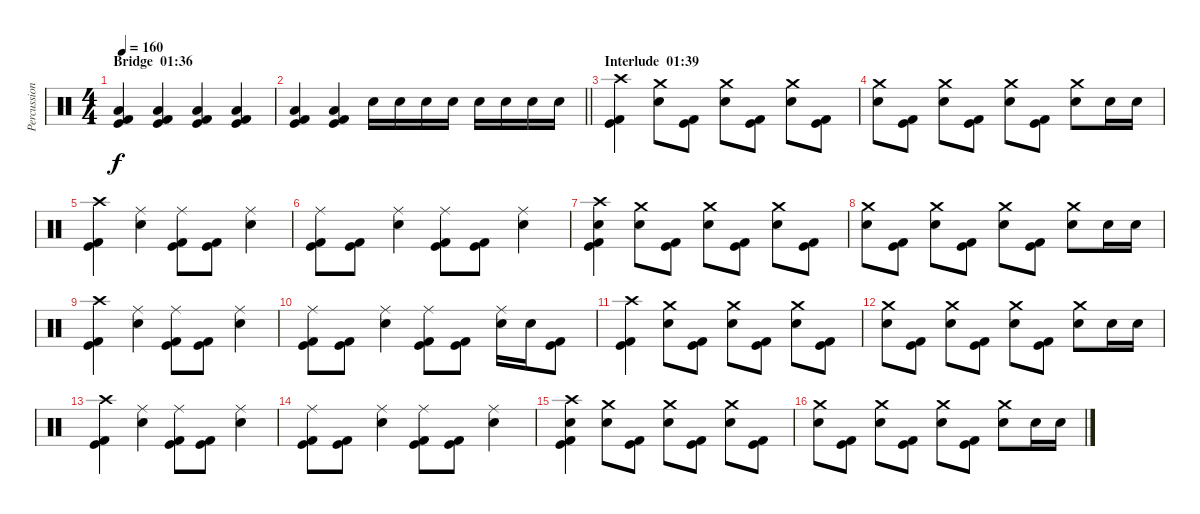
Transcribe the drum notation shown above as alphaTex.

\track ("Percussion" "Percussion") {instrument percussion}
\staff {score}
\articulation defaults
\ts (4 4)
\section ("" "Bridge  01:36")
\tempo 160
\clef neutral
\ks c
("Low Tom (hit)" "Kick (hit)" "Kick (hit) 2").4{dy f} ("Low Tom (hit)" "Kick (hit)" "Kick (hit) 2").4 ("Low Tom (hit)" "Kick (hit)" "Kick (hit) 2").4 ("Low Tom (hit)" "Kick (hit)" "Kick (hit) 2").4 |
\barLineRight lightlight
("Low Tom (hit)" "Kick (hit)" "Kick (hit) 2").4 ("Low Tom (hit)" "Kick (hit)" "Kick (hit) 2").4 "Electric Snare (hit)".16 "Electric Snare (hit)".16 "Electric Snare (hit)".16 "Electric Snare (hit)".16 "Electric Snare (hit)".16 "Electric Snare (hit)".16 "Electric Snare (hit)".16 "Electric Snare (hit)".16 |
\section ("" "Interlude  01:39")
("Crash high (hit)" "Kick (hit)" "Kick (hit) 2").4 ("Crash medium (hit)" "Electric Snare (hit)").8 ("Kick (hit)" "Kick (hit) 2").8 ("Crash medium (hit)" "Electric Snare (hit)").8 ("Kick (hit)" "Kick (hit) 2").8 ("Crash medium (hit)" "Electric Snare (hit)").8 ("Kick (hit)" "Kick (hit) 2").8 |
("Crash medium (hit)" "Electric Snare (hit)").8 ("Kick (hit)" "Kick (hit) 2").8 ("Crash medium (hit)" "Electric Snare (hit)").8 ("Kick (hit)" "Kick (hit) 2").8 ("Crash medium (hit)" "Electric Snare (hit)").8 ("Kick (hit)" "Kick (hit) 2").8 ("Crash medium (hit)" "Electric Snare (hit)").8 "Electric Snare (hit)".16 "Electric Snare (hit)".16 |
("Crash high (hit)" "Kick (hit)" "Kick (hit) 2").4 ("Ride (middle)" "Electric Snare (hit)").4 ("Ride (middle)" "Kick (hit)" "Kick (hit) 2").8 ("Kick (hit)" "Kick (hit) 2").8 ("Ride (middle)" "Electric Snare (hit)").4 |
("Ride (middle)" "Kick (hit)" "Kick (hit) 2").8 ("Kick (hit)" "Kick (hit) 2").8 ("Ride (middle)" "Electric Snare (hit)").4 ("Ride (middle)" "Kick (hit)" "Kick (hit) 2").8 ("Kick (hit)" "Kick (hit) 2").8 ("Ride (middle)" "Electric Snare (hit)").4 |
("Crash high (hit)" "Electric Snare (hit)" "Kick (hit)" "Kick (hit) 2").4 ("Crash medium (hit)" "Electric Snare (hit)").8 ("Kick (hit)" "Kick (hit) 2").8 ("Crash medium (hit)" "Electric Snare (hit)").8 ("Kick (hit)" "Kick (hit) 2").8 ("Crash medium (hit)" "Electric Snare (hit)").8 ("Kick (hit)" "Kick (hit) 2").8 |
("Crash medium (hit)" "Electric Snare (hit)").8 ("Kick (hit)" "Kick (hit) 2").8 ("Crash medium (hit)" "Electric Snare (hit)").8 ("Kick (hit)" "Kick (hit) 2").8 ("Crash medium (hit)" "Electric Snare (hit)").8 ("Kick (hit)" "Kick (hit) 2").8 ("Crash medium (hit)" "Electric Snare (hit)").8 "Electric Snare (hit)".16 "Electric Snare (hit)".16 |
("Crash high (hit)" "Kick (hit)" "Kick (hit) 2").4 ("Ride (middle)" "Electric Snare (hit)").4 ("Ride (middle)" "Kick (hit)" "Kick (hit) 2").8 ("Kick (hit)" "Kick (hit) 2").8 ("Ride (middle)" "Electric Snare (hit)").4 |
("Ride (middle)" "Kick (hit)" "Kick (hit) 2").8 ("Kick (hit)" "Kick (hit) 2").8 ("Ride (middle)" "Electric Snare (hit)").4 ("Ride (middle)" "Kick (hit)" "Kick (hit) 2").8 ("Kick (hit)" "Kick (hit) 2").8 ("Ride (middle)" "Electric Snare (hit)").16 "Electric Snare (hit)".16 ("Kick (hit)" "Kick (hit) 2").8 |
("Crash high (hit)" "Kick (hit)" "Kick (hit) 2").4 ("Crash medium (hit)" "Electric Snare (hit)").8 ("Kick (hit)" "Kick (hit) 2").8 ("Crash medium (hit)" "Electric Snare (hit)").8 ("Kick (hit)" "Kick (hit) 2").8 ("Crash medium (hit)" "Electric Snare (hit)").8 ("Kick (hit)" "Kick (hit) 2").8 |
("Crash medium (hit)" "Electric Snare (hit)").8 ("Kick (hit)" "Kick (hit) 2").8 ("Crash medium (hit)" "Electric Snare (hit)").8 ("Kick (hit)" "Kick (hit) 2").8 ("Crash medium (hit)" "Electric Snare (hit)").8 ("Kick (hit)" "Kick (hit) 2").8 ("Crash medium (hit)" "Electric Snare (hit)").8 "Electric Snare (hit)".16 "Electric Snare (hit)".16 |
("Crash high (hit)" "Kick (hit)" "Kick (hit) 2").4 ("Ride (middle)" "Electric Snare (hit)").4 ("Ride (middle)" "Kick (hit)" "Kick (hit) 2").8 ("Kick (hit)" "Kick (hit) 2").8 ("Ride (middle)" "Electric Snare (hit)").4 |
("Ride (middle)" "Kick (hit)" "Kick (hit) 2").8 ("Kick (hit)" "Kick (hit) 2").8 ("Ride (middle)" "Electric Snare (hit)").4 ("Ride (middle)" "Kick (hit)" "Kick (hit) 2").8 ("Kick (hit)" "Kick (hit) 2").8 ("Ride (middle)" "Electric Snare (hit)").4 |
("Crash high (hit)" "Electric Snare (hit)" "Kick (hit)" "Kick (hit) 2").4 ("Crash medium (hit)" "Electric Snare (hit)").8 ("Kick (hit)" "Kick (hit) 2").8 ("Crash medium (hit)" "Electric Snare (hit)").8 ("Kick (hit)" "Kick (hit) 2").8 ("Crash medium (hit)" "Electric Snare (hit)").8 ("Kick (hit)" "Kick (hit) 2").8 |
("Crash medium (hit)" "Electric Snare (hit)").8 ("Kick (hit)" "Kick (hit) 2").8 ("Crash medium (hit)" "Electric Snare (hit)").8 ("Kick (hit)" "Kick (hit) 2").8 ("Crash medium (hit)" "Electric Snare (hit)").8 ("Kick (hit)" "Kick (hit) 2").8 ("Crash medium (hit)" "Electric Snare (hit)").8 "Electric Snare (hit)".16 "Electric Snare (hit)".16
